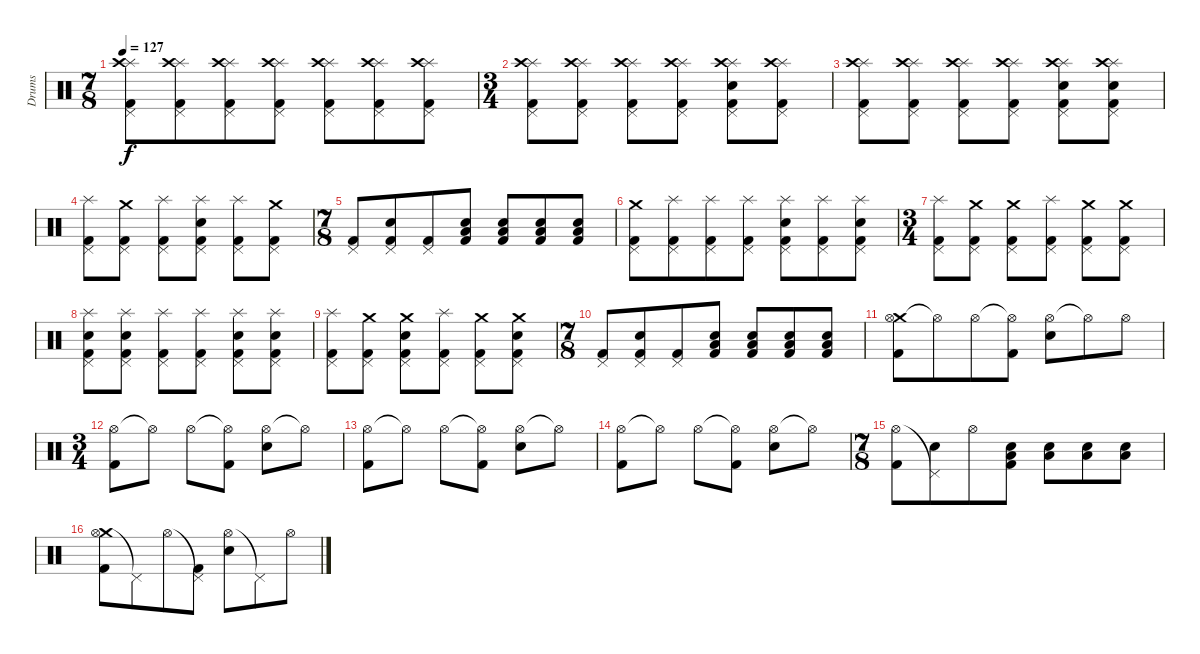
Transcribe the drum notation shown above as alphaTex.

\track ("Drums" "Drums") {instrument percussion}
\staff {score}
\articulation defaults
\ts (7 8)
\tempo 127
\clef neutral
\ks c
("Splash (hit)" "Crash high (hit)" "Pedal Hi-Hat (hit)" "Kick (hit) 2").8{dy f} ("Splash (hit)" "Crash high (hit)" "Pedal Hi-Hat (hit)" "Kick (hit) 2").8 ("Splash (hit)" "Crash high (hit)" "Pedal Hi-Hat (hit)" "Kick (hit) 2").8 ("Splash (hit)" "Crash high (hit)" "Pedal Hi-Hat (hit)" "Kick (hit) 2").8 ("Splash (hit)" "Crash high (hit)" "Pedal Hi-Hat (hit)" "Kick (hit) 2").8 ("Splash (hit)" "Crash high (hit)" "Pedal Hi-Hat (hit)" "Kick (hit) 2").8 ("Splash (hit)" "Crash high (hit)" "Pedal Hi-Hat (hit)" "Kick (hit) 2").8 |
\ts (3 4)
("Splash (hit)" "Crash high (hit)" "Pedal Hi-Hat (hit)" "Kick (hit) 2").8 ("Splash (hit)" "Crash high (hit)" "Pedal Hi-Hat (hit)" "Kick (hit) 2").8 ("Splash (hit)" "Crash high (hit)" "Pedal Hi-Hat (hit)" "Kick (hit) 2").8 ("Splash (hit)" "Crash high (hit)" "Pedal Hi-Hat (hit)" "Kick (hit) 2").8 ("Splash (hit)" "Crash high (hit)" "Pedal Hi-Hat (hit)" "Electric Snare (hit)" "Kick (hit) 2").8 ("Splash (hit)" "Crash high (hit)" "Pedal Hi-Hat (hit)" "Kick (hit) 2").8 |
("Splash (hit)" "Crash high (hit)" "Pedal Hi-Hat (hit)" "Kick (hit) 2").8 ("Splash (hit)" "Crash high (hit)" "Pedal Hi-Hat (hit)" "Kick (hit) 2").8 ("Splash (hit)" "Crash high (hit)" "Pedal Hi-Hat (hit)" "Kick (hit) 2").8 ("Splash (hit)" "Crash high (hit)" "Pedal Hi-Hat (hit)" "Kick (hit) 2").8 ("Splash (hit)" "Crash high (hit)" "Pedal Hi-Hat (hit)" "Electric Snare (hit)" "Kick (hit) 2").8 ("Splash (hit)" "Crash high (hit)" "Pedal Hi-Hat (hit)" "Electric Snare (hit)" "Kick (hit) 2").8 |
("Splash (hit)" "Pedal Hi-Hat (hit)" "Kick (hit) 2").8 ("Crash medium (hit)" "Pedal Hi-Hat (hit)" "Kick (hit) 2").8 ("Splash (hit)" "Pedal Hi-Hat (hit)" "Kick (hit) 2").8 ("Splash (hit)" "Pedal Hi-Hat (hit)" "Electric Snare (hit)" "Kick (hit) 2").8 ("Splash (hit)" "Pedal Hi-Hat (hit)" "Kick (hit) 2").8 ("Crash medium (hit)" "Pedal Hi-Hat (hit)" "Kick (hit) 2").8 |
\ts (7 8)
("Pedal Hi-Hat (hit)" "Kick (hit) 2").8 ("Pedal Hi-Hat (hit)" "Electric Snare (hit)" "Kick (hit) 2").8 ("Pedal Hi-Hat (hit)" "Kick (hit) 2").8 ("Low Tom (hit)" "Electric Snare (hit)" "Kick (hit) 2").8 ("Low Tom (hit)" "Electric Snare (hit)" "Kick (hit) 2").8 ("Low Tom (hit)" "Electric Snare (hit)" "Kick (hit) 2").8 ("Low Tom (hit)" "Electric Snare (hit)" "Kick (hit) 2").8 |
("Crash medium (hit)" "Pedal Hi-Hat (hit)" "Kick (hit) 2").8 ("Splash (hit)" "Pedal Hi-Hat (hit)" "Kick (hit) 2").8 ("Splash (hit)" "Pedal Hi-Hat (hit)" "Kick (hit) 2").8 ("Splash (hit)" "Pedal Hi-Hat (hit)" "Kick (hit) 2").8 ("Splash (hit)" "Pedal Hi-Hat (hit)" "Electric Snare (hit)" "Kick (hit) 2").8 ("Splash (hit)" "Pedal Hi-Hat (hit)" "Kick (hit) 2").8 ("Splash (hit)" "Pedal Hi-Hat (hit)" "Electric Snare (hit)" "Kick (hit) 2").8 |
\ts (3 4)
("Splash (hit)" "Pedal Hi-Hat (hit)" "Kick (hit) 2").8 ("Crash medium (hit)" "Pedal Hi-Hat (hit)" "Kick (hit) 2").8 ("Crash medium (hit)" "Pedal Hi-Hat (hit)" "Kick (hit) 2").8 ("Splash (hit)" "Pedal Hi-Hat (hit)" "Kick (hit) 2").8 ("Crash medium (hit)" "Pedal Hi-Hat (hit)" "Kick (hit) 2").8 ("Crash medium (hit)" "Pedal Hi-Hat (hit)" "Kick (hit) 2").8 |
("Splash (hit)" "Pedal Hi-Hat (hit)" "Electric Snare (hit)" "Kick (hit) 2").8 ("Splash (hit)" "Pedal Hi-Hat (hit)" "Electric Snare (hit)" "Kick (hit) 2").8 ("Splash (hit)" "Pedal Hi-Hat (hit)" "Kick (hit) 2").8 ("Splash (hit)" "Pedal Hi-Hat (hit)" "Kick (hit) 2").8 ("Splash (hit)" "Pedal Hi-Hat (hit)" "Electric Snare (hit)" "Kick (hit) 2").8 ("Splash (hit)" "Pedal Hi-Hat (hit)" "Electric Snare (hit)" "Kick (hit) 2").8 |
("Splash (hit)" "Pedal Hi-Hat (hit)" "Kick (hit) 2").8 ("Crash medium (hit)" "Pedal Hi-Hat (hit)" "Kick (hit) 2").8 ("Crash medium (hit)" "Pedal Hi-Hat (hit)" "Electric Snare (hit)" "Kick (hit) 2").8 ("Splash (hit)" "Pedal Hi-Hat (hit)" "Kick (hit) 2").8 ("Crash medium (hit)" "Pedal Hi-Hat (hit)" "Kick (hit) 2").8 ("Crash medium (hit)" "Pedal Hi-Hat (hit)" "Electric Snare (hit)" "Kick (hit) 2").8 |
\ts (7 8)
("Pedal Hi-Hat (hit)" "Kick (hit) 2").8 ("Pedal Hi-Hat (hit)" "Electric Snare (hit)" "Kick (hit) 2").8 ("Pedal Hi-Hat (hit)" "Kick (hit) 2").8 ("Low Tom (hit)" "Electric Snare (hit)" "Kick (hit) 2").8 ("Low Tom (hit)" "Electric Snare (hit)" "Kick (hit) 2").8 ("Low Tom (hit)" "Electric Snare (hit)" "Kick (hit) 2").8 ("Low Tom (hit)" "Electric Snare (hit)" "Kick (hit) 2").8 |
("Crash medium (hit)" "Hi-Hat (open)" "Kick (hit) 2").8 "Hi-Hat (open)"{t}.8 "Hi-Hat (open)".8 ("Hi-Hat (open)"{t} "Kick (hit) 2").8 ("Hi-Hat (open)" "Electric Snare (hit)").8 "Hi-Hat (open)"{t}.8 "Hi-Hat (open)".8 |
\ts (3 4)
("Hi-Hat (open)" "Kick (hit) 2").8 "Hi-Hat (open)"{t}.8 "Hi-Hat (open)".8 ("Hi-Hat (open)"{t} "Kick (hit) 2").8 ("Hi-Hat (open)" "Electric Snare (hit)").8 "Hi-Hat (open)"{t}.8 |
("Hi-Hat (open)" "Kick (hit) 2").8 "Hi-Hat (open)"{t}.8 "Hi-Hat (open)".8 ("Hi-Hat (open)"{t} "Kick (hit) 2").8 ("Hi-Hat (open)" "Electric Snare (hit)").8 "Hi-Hat (open)"{t}.8 |
("Hi-Hat (open)" "Kick (hit) 2").8 "Hi-Hat (open)"{t}.8 "Hi-Hat (open)".8 ("Hi-Hat (open)"{t} "Kick (hit) 2").8 ("Hi-Hat (open)" "Electric Snare (hit)").8 "Hi-Hat (open)"{t}.8 |
\ts (7 8)
("Hi-Hat (open)" "Kick (hit) 2").8 ("Pedal Hi-Hat (hit)"{t} "Electric Snare (hit)").8 "Hi-Hat (open)".8 ("Low Tom (hit)" "Electric Snare (hit)" "Kick (hit) 2").8 ("Low Tom (hit)" "Electric Snare (hit)").8 ("Low Tom (hit)" "Electric Snare (hit)").8 ("Low Tom (hit)" "Electric Snare (hit)").8 |
("Crash medium (hit)" "Hi-Hat (open)" "Kick (hit) 2").8 "Pedal Hi-Hat (hit)"{t}.8 "Hi-Hat (open)".8 ("Pedal Hi-Hat (hit)"{t} "Kick (hit) 2").8 ("Hi-Hat (open)" "Electric Snare (hit)").8 "Pedal Hi-Hat (hit)"{t}.8 "Hi-Hat (open)".8
